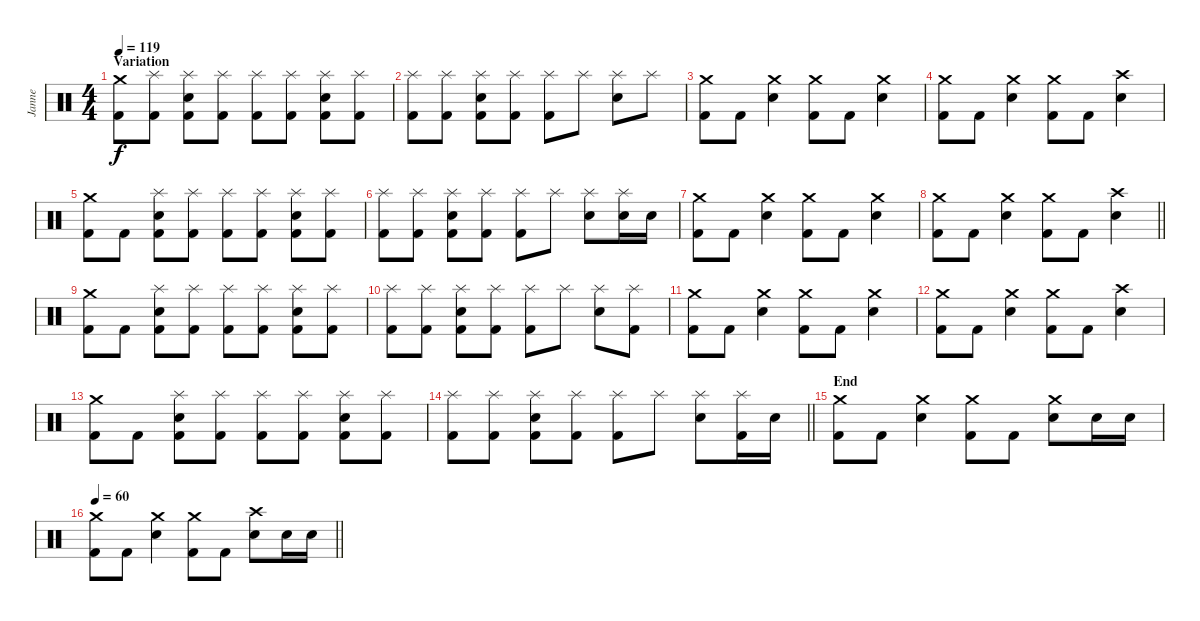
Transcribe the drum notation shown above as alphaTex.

\track ("Janne" "Janne") {instrument percussion}
\staff {score}
\articulation defaults
\ts (4 4)
\section ("" "Variation")
\tempo 119
\clef neutral
\ks c
("Kick (hit) 2" "Crash medium (hit)").8{dy f} ("Kick (hit) 2" "Splash (hit)").8 ("Kick (hit) 2" "Snare (hit) 2" "Splash (hit)").8 ("Kick (hit) 2" "Splash (hit)").8 ("Kick (hit) 2" "Splash (hit)").8 ("Kick (hit) 2" "Splash (hit)").8 ("Kick (hit) 2" "Snare (hit) 2" "Splash (hit)").8 ("Kick (hit) 2" "Splash (hit)").8 |
("Kick (hit) 2" "Splash (hit)").8 ("Kick (hit) 2" "Splash (hit)").8 ("Kick (hit) 2" "Snare (hit) 2" "Splash (hit)").8 ("Kick (hit) 2" "Splash (hit)").8 ("Kick (hit) 2" "Splash (hit)").8 "Splash (hit)".8 ("Snare (hit) 2" "Splash (hit)").8 "Splash (hit)".8 |
("Kick (hit) 2" "Crash medium (hit)").8 "Kick (hit) 2".8 ("Snare (hit) 2" "Crash medium (hit)").4 ("Kick (hit) 2" "Crash medium (hit)").8 "Kick (hit) 2".8 ("Snare (hit) 2" "Crash medium (hit)").4 |
("Kick (hit) 2" "Crash medium (hit)").8 "Kick (hit) 2".8 ("Snare (hit) 2" "Crash medium (hit)").4 ("Kick (hit) 2" "Crash medium (hit)").8 "Kick (hit) 2".8 ("Snare (hit) 2" "Crash high (hit)").4 |
("Kick (hit) 2" "Crash medium (hit)").8 "Kick (hit) 2".8 ("Kick (hit) 2" "Snare (hit) 2" "Splash (hit)").8 ("Kick (hit) 2" "Splash (hit)").8 ("Kick (hit) 2" "Splash (hit)").8 ("Kick (hit) 2" "Splash (hit)").8 ("Kick (hit) 2" "Snare (hit) 2" "Splash (hit)").8 ("Kick (hit) 2" "Splash (hit)").8 |
("Kick (hit) 2" "Splash (hit)").8 ("Kick (hit) 2" "Splash (hit)").8 ("Kick (hit) 2" "Snare (hit) 2" "Splash (hit)").8 ("Kick (hit) 2" "Splash (hit)").8 ("Kick (hit) 2" "Splash (hit)").8 "Splash (hit)".8 ("Snare (hit) 2" "Splash (hit)").8 ("Snare (hit) 2" "Splash (hit)").16 "Snare (hit) 2".16 |
("Kick (hit) 2" "Crash medium (hit)").8 "Kick (hit) 2".8 ("Snare (hit) 2" "Crash medium (hit)").4 ("Kick (hit) 2" "Crash medium (hit)").8 "Kick (hit) 2".8 ("Snare (hit) 2" "Crash medium (hit)").4 |
\barLineRight lightlight
("Kick (hit) 2" "Crash medium (hit)").8 "Kick (hit) 2".8 ("Snare (hit) 2" "Crash medium (hit)").4 ("Kick (hit) 2" "Crash medium (hit)").8 "Kick (hit) 2".8 ("Snare (hit) 2" "Crash high (hit)").4 |
\section ("" "")
("Kick (hit) 2" "Crash medium (hit)").8 "Kick (hit) 2".8 ("Kick (hit) 2" "Snare (hit) 2" "Splash (hit)").8 ("Kick (hit) 2" "Splash (hit)").8 ("Kick (hit) 2" "Splash (hit)").8 ("Kick (hit) 2" "Splash (hit)").8 ("Kick (hit) 2" "Snare (hit) 2" "Splash (hit)").8 ("Kick (hit) 2" "Splash (hit)").8 |
("Kick (hit) 2" "Splash (hit)").8 ("Kick (hit) 2" "Splash (hit)").8 ("Kick (hit) 2" "Snare (hit) 2" "Splash (hit)").8 ("Kick (hit) 2" "Splash (hit)").8 ("Kick (hit) 2" "Splash (hit)").8 "Splash (hit)".8 ("Snare (hit) 2" "Splash (hit)").8 ("Kick (hit) 2" "Splash (hit)").8 |
("Kick (hit) 2" "Crash medium (hit)").8 "Kick (hit) 2".8 ("Snare (hit) 2" "Crash medium (hit)").4 ("Kick (hit) 2" "Crash medium (hit)").8 "Kick (hit) 2".8 ("Snare (hit) 2" "Crash medium (hit)").4 |
("Kick (hit) 2" "Crash medium (hit)").8 "Kick (hit) 2".8 ("Snare (hit) 2" "Crash medium (hit)").4 ("Kick (hit) 2" "Crash medium (hit)").8 "Kick (hit) 2".8 ("Snare (hit) 2" "Crash high (hit)").4 |
("Kick (hit) 2" "Crash medium (hit)").8 "Kick (hit) 2".8 ("Kick (hit) 2" "Snare (hit) 2" "Splash (hit)").8 ("Kick (hit) 2" "Splash (hit)").8 ("Kick (hit) 2" "Splash (hit)").8 ("Kick (hit) 2" "Splash (hit)").8 ("Kick (hit) 2" "Snare (hit) 2" "Splash (hit)").8 ("Kick (hit) 2" "Splash (hit)").8 |
\barLineRight lightlight
("Kick (hit) 2" "Splash (hit)").8 ("Kick (hit) 2" "Splash (hit)").8 ("Kick (hit) 2" "Snare (hit) 2" "Splash (hit)").8 ("Kick (hit) 2" "Splash (hit)").8 ("Kick (hit) 2" "Splash (hit)").8 "Splash (hit)".8 ("Snare (hit) 2" "Splash (hit)").8 ("Kick (hit) 2" "Splash (hit)").16 "Snare (hit) 2".16 |
\section ("" "End")
("Kick (hit) 2" "Crash medium (hit)").8 "Kick (hit) 2".8 ("Snare (hit) 2" "Crash medium (hit)").4 ("Kick (hit) 2" "Crash medium (hit)").8 "Kick (hit) 2".8 ("Snare (hit) 2" "Crash medium (hit)").8 "Snare (hit) 2".16 "Snare (hit) 2".16 |
\tempo 60
\barLineRight lightlight
("Kick (hit) 2" "Crash medium (hit)").8 "Kick (hit) 2".8 ("Snare (hit) 2" "Crash medium (hit)").4 ("Kick (hit) 2" "Crash medium (hit)").8 "Kick (hit) 2".8 ("Snare (hit) 2" "Crash high (hit)").8 "Snare (hit) 2".16 "Snare (hit) 2".16
